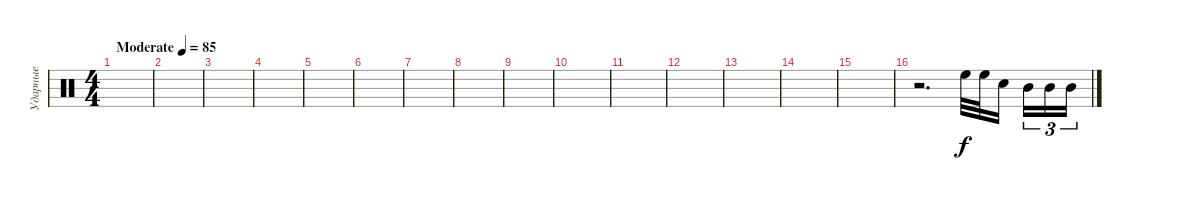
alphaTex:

\track ("Ударные" "Ударные") {instrument percussion}
\staff {score}
\articulation defaults
\ts (4 4)
\tempo (85 "Moderate")
\clef neutral
\ks c
|
|
|
|
|
|
|
|
|
|
|
|
|
|
|
r.2{d} "High Floor Tom (hit)".32 "High Floor Tom (hit)".32 "Electric Snare (hit)".16{beam splitsecondary} "Mid Tom (hit)".16{tu (3 2)} "Mid Tom (hit)".16{tu (3 2)} "Mid Tom (hit)".16{tu (3 2)}
